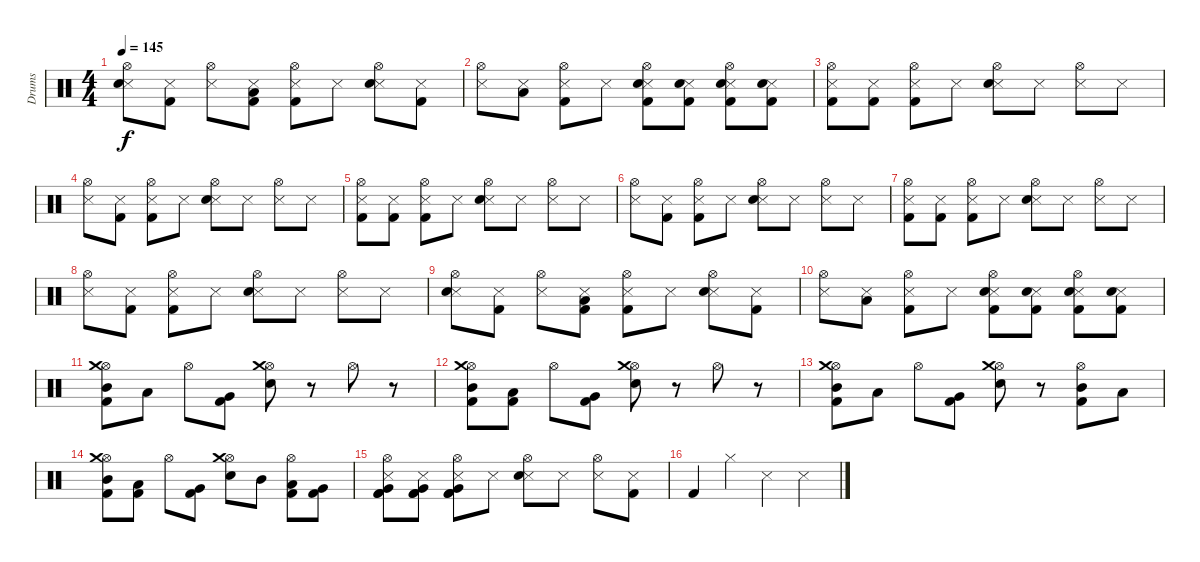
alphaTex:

\track ("Drums" "Drums") {instrument percussion}
\staff {score}
\articulation defaults
\ts (4 4)
\tempo 145
\clef neutral
\ks c
("Hi-Hat (open)" "Snare (side stick) 3" "Electric Snare (hit)").8{dy f} ("Snare (side stick) 3" "Kick (hit) 2").8 ("Hi-Hat (open)" "Snare (side stick) 3").8 ("Snare (side stick) 3" "Low Tom (hit)" "Kick (hit) 2").8 ("Hi-Hat (open)" "Snare (side stick) 3" "Kick (hit) 2").8 "Snare (side stick) 3".8 ("Hi-Hat (open)" "Snare (side stick) 3" "Electric Snare (hit)").8 ("Snare (side stick) 3" "Kick (hit) 2").8 |
("Hi-Hat (open)" "Snare (side stick) 3").8 ("Snare (side stick) 3" "Low Tom (hit)").8 ("Hi-Hat (open)" "Snare (side stick) 3" "Kick (hit) 2").8 "Snare (side stick) 3".8 ("Hi-Hat (open)" "Snare (side stick) 3" "Electric Snare (hit)" "Kick (hit) 2").8 ("Snare (side stick) 3" "Electric Snare (hit)" "Kick (hit) 2").8 ("Hi-Hat (open)" "Snare (side stick) 3" "Electric Snare (hit)" "Kick (hit) 2").8 ("Snare (side stick) 3" "Electric Snare (hit)" "Kick (hit) 2").8 |
("Hi-Hat (open)" "Snare (side stick) 3" "Kick (hit) 2").8 ("Snare (side stick) 3" "Kick (hit) 2").8 ("Hi-Hat (open)" "Snare (side stick) 3" "Kick (hit) 2").8 "Snare (side stick) 3".8 ("Hi-Hat (open)" "Snare (side stick) 3" "Snare (hit) 2").8 "Snare (side stick) 3".8 ("Hi-Hat (open)" "Snare (side stick) 3").8 "Snare (side stick) 3".8 |
("Hi-Hat (open)" "Snare (side stick) 3").8 ("Snare (side stick) 3" "Kick (hit) 2").8 ("Hi-Hat (open)" "Snare (side stick) 3" "Kick (hit) 2").8 "Snare (side stick) 3".8 ("Hi-Hat (open)" "Snare (side stick) 3" "Snare (hit) 2").8 "Snare (side stick) 3".8 ("Hi-Hat (open)" "Snare (side stick) 3").8 "Snare (side stick) 3".8 |
("Hi-Hat (open)" "Snare (side stick) 3" "Kick (hit) 2").8 ("Snare (side stick) 3" "Kick (hit) 2").8 ("Hi-Hat (open)" "Snare (side stick) 3" "Kick (hit) 2").8 "Snare (side stick) 3".8 ("Hi-Hat (open)" "Snare (side stick) 3" "Snare (hit) 2").8 "Snare (side stick) 3".8 ("Hi-Hat (open)" "Snare (side stick) 3").8 "Snare (side stick) 3".8 |
("Hi-Hat (open)" "Snare (side stick) 3").8 ("Snare (side stick) 3" "Kick (hit) 2").8 ("Hi-Hat (open)" "Snare (side stick) 3" "Kick (hit) 2").8 "Snare (side stick) 3".8 ("Hi-Hat (open)" "Snare (side stick) 3" "Snare (hit) 2").8 "Snare (side stick) 3".8 ("Hi-Hat (open)" "Snare (side stick) 3").8 "Snare (side stick) 3".8 |
("Hi-Hat (open)" "Snare (side stick) 3" "Kick (hit) 2").8 ("Snare (side stick) 3" "Kick (hit) 2").8 ("Hi-Hat (open)" "Snare (side stick) 3" "Kick (hit) 2").8 "Snare (side stick) 3".8 ("Hi-Hat (open)" "Snare (side stick) 3" "Snare (hit) 2").8 "Snare (side stick) 3".8 ("Hi-Hat (open)" "Snare (side stick) 3").8 "Snare (side stick) 3".8 |
("Hi-Hat (open)" "Snare (side stick) 3").8 ("Snare (side stick) 3" "Kick (hit) 2").8 ("Hi-Hat (open)" "Snare (side stick) 3" "Kick (hit) 2").8 "Snare (side stick) 3".8 ("Hi-Hat (open)" "Snare (side stick) 3" "Snare (hit) 2").8 "Snare (side stick) 3".8 ("Hi-Hat (open)" "Snare (side stick) 3").8 "Snare (side stick) 3".8 |
("Hi-Hat (open)" "Snare (side stick) 3" "Electric Snare (hit)").8 ("Snare (side stick) 3" "Kick (hit) 2").8 ("Hi-Hat (open)" "Snare (side stick) 3").8 ("Snare (side stick) 3" "Low Tom (hit)" "Kick (hit) 2").8 ("Hi-Hat (open)" "Snare (side stick) 3" "Kick (hit) 2").8 "Snare (side stick) 3".8 ("Hi-Hat (open)" "Snare (side stick) 3" "Electric Snare (hit)").8 ("Snare (side stick) 3" "Kick (hit) 2").8 |
("Hi-Hat (open)" "Snare (side stick) 3").8 ("Snare (side stick) 3" "Low Tom (hit)").8 ("Hi-Hat (open)" "Snare (side stick) 3" "Kick (hit) 2").8 "Snare (side stick) 3".8 ("Hi-Hat (open)" "Snare (side stick) 3" "Electric Snare (hit)" "Kick (hit) 2").8 ("Snare (side stick) 3" "Electric Snare (hit)" "Kick (hit) 2").8 ("Hi-Hat (open)" "Snare (side stick) 3" "Electric Snare (hit)" "Kick (hit) 2").8 ("Snare (side stick) 3" "Electric Snare (hit)" "Kick (hit) 2").8 |
("Hi-Hat (open)" "Crash medium (hit)" "Mid Tom (hit)" "Kick (hit) 2").8 "Low Tom (hit)".8 "Hi-Hat (open)".8 ("Very Low Tom (hit)" "Kick (hit) 2").8 ("Hi-Hat (open)" "Crash medium (hit)" "Electric Snare (hit)").8 r.8 "Hi-Hat (open)".8 r.8 |
("Hi-Hat (open)" "Crash medium (hit)" "Mid Tom (hit)" "Kick (hit) 2").8 ("Low Tom (hit)" "Kick (hit) 2").8 "Hi-Hat (open)".8 ("Very Low Tom (hit)" "Kick (hit) 2").8 ("Hi-Hat (open)" "Crash medium (hit)" "Electric Snare (hit)").8 r.8 "Hi-Hat (open)".8 r.8 |
("Hi-Hat (open)" "Crash medium (hit)" "Mid Tom (hit)" "Kick (hit) 2").8 "Low Tom (hit)".8 "Hi-Hat (open)".8 ("Very Low Tom (hit)" "Kick (hit) 2").8 ("Hi-Hat (open)" "Crash medium (hit)" "Electric Snare (hit)").8 r.8 ("Hi-Hat (open)" "Mid Tom (hit)" "Kick (hit) 2").8 "Low Tom (hit)".8 |
("Hi-Hat (open)" "Crash medium (hit)" "Mid Tom (hit)" "Kick (hit) 2").8 ("Low Tom (hit)" "Kick (hit) 2").8 "Hi-Hat (open)".8 ("Very Low Tom (hit)" "Kick (hit) 2").8 ("Hi-Hat (open)" "Crash medium (hit)" "Electric Snare (hit)").8 "Mid Tom (hit)".8 ("Hi-Hat (open)" "Low Tom (hit)" "Kick (hit) 2").8 ("Very Low Tom (hit)" "Kick (hit) 2").8 |
("Hi-Hat (open)" "Snare (side stick) 3" "Very Low Tom (hit)" "Kick (hit) 2" "Kick (hit) 2").8 ("Snare (side stick) 3" "Very Low Tom (hit)" "Kick (hit) 2" "Kick (hit) 2").8 ("Hi-Hat (open)" "Snare (side stick) 3" "Very Low Tom (hit)" "Kick (hit) 2" "Kick (hit) 2").8 "Snare (side stick) 3".8 ("Hi-Hat (open)" "Snare (side stick) 3" "Electric Snare (hit)").8 "Snare (side stick) 3".8 ("Hi-Hat (open)" "Snare (side stick) 3").8 ("Snare (side stick) 3" "Kick (hit) 2").8 |
"Kick (hit) 2".4 "Hi-Hat (closed)".4 "Snare (side stick) 3".4 "Snare (side stick) 3".4
